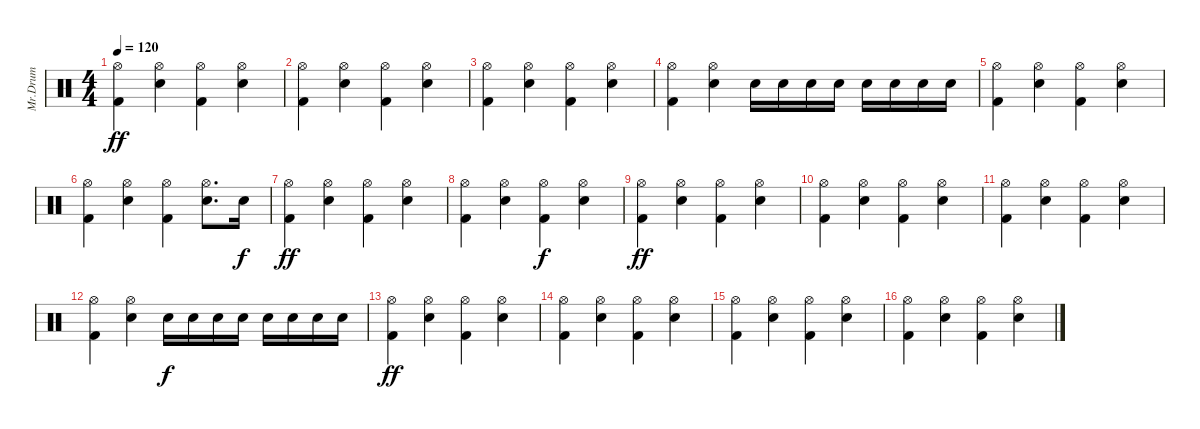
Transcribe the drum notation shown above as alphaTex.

\track ("Mr.Drum" "Mr.Drum") {instrument percussion}
\staff {score}
\articulation defaults
\ts (4 4)
\tempo 120
\clef neutral
\ks c
("Hi-Hat (open)" "Kick (hit) 2").4{dy ff} ("Hi-Hat (open)" "Electric Snare (hit)").4 ("Hi-Hat (open)" "Kick (hit) 2").4 ("Hi-Hat (open)" "Electric Snare (hit)").4 |
("Hi-Hat (open)" "Kick (hit) 2").4 ("Hi-Hat (open)" "Electric Snare (hit)").4 ("Hi-Hat (open)" "Kick (hit) 2").4 ("Hi-Hat (open)" "Electric Snare (hit)").4 |
("Hi-Hat (open)" "Kick (hit) 2").4 ("Hi-Hat (open)" "Electric Snare (hit)").4 ("Hi-Hat (open)" "Kick (hit) 2").4 ("Hi-Hat (open)" "Electric Snare (hit)").4 |
("Hi-Hat (open)" "Kick (hit) 2").4 ("Hi-Hat (open)" "Electric Snare (hit)").4 "Electric Snare (hit)".16 "Electric Snare (hit)".16 "Electric Snare (hit)".16 "Electric Snare (hit)".16 "Electric Snare (hit)".16 "Electric Snare (hit)".16 "Electric Snare (hit)".16 "Electric Snare (hit)".16 |
("Hi-Hat (open)" "Kick (hit) 2").4 ("Hi-Hat (open)" "Electric Snare (hit)").4 ("Hi-Hat (open)" "Kick (hit) 2").4 ("Hi-Hat (open)" "Electric Snare (hit)").4 |
("Hi-Hat (open)" "Kick (hit) 2").4 ("Hi-Hat (open)" "Electric Snare (hit)").4 ("Hi-Hat (open)" "Kick (hit) 2").4 ("Hi-Hat (open)" "Electric Snare (hit)").8{d} "Electric Snare (hit)".16{dy f} |
("Hi-Hat (open)" "Kick (hit) 2").4{dy ff} ("Hi-Hat (open)" "Electric Snare (hit)").4 ("Hi-Hat (open)" "Kick (hit) 2").4 ("Hi-Hat (open)" "Electric Snare (hit)").4 |
("Hi-Hat (open)" "Kick (hit) 2").4 ("Hi-Hat (open)" "Electric Snare (hit)").4 ("Hi-Hat (open)" "Kick (hit) 2").4{dy f} ("Hi-Hat (open)" "Electric Snare (hit)").4 |
("Hi-Hat (open)" "Kick (hit) 2").4{dy ff} ("Hi-Hat (open)" "Electric Snare (hit)").4 ("Hi-Hat (open)" "Kick (hit) 2").4 ("Hi-Hat (open)" "Electric Snare (hit)").4 |
("Hi-Hat (open)" "Kick (hit) 2").4 ("Hi-Hat (open)" "Electric Snare (hit)").4 ("Hi-Hat (open)" "Kick (hit) 2").4 ("Hi-Hat (open)" "Electric Snare (hit)").4 |
("Hi-Hat (open)" "Kick (hit) 2").4 ("Hi-Hat (open)" "Electric Snare (hit)").4 ("Hi-Hat (open)" "Kick (hit) 2").4 ("Hi-Hat (open)" "Electric Snare (hit)").4 |
("Hi-Hat (open)" "Kick (hit) 2").4 ("Hi-Hat (open)" "Electric Snare (hit)").4 "Electric Snare (hit)".16{dy f} "Electric Snare (hit)".16 "Electric Snare (hit)".16 "Electric Snare (hit)".16 "Electric Snare (hit)".16 "Electric Snare (hit)".16 "Electric Snare (hit)".16 "Electric Snare (hit)".16 |
("Hi-Hat (open)" "Kick (hit) 2").4{dy ff} ("Hi-Hat (open)" "Electric Snare (hit)").4 ("Hi-Hat (open)" "Kick (hit) 2").4 ("Hi-Hat (open)" "Electric Snare (hit)").4 |
("Hi-Hat (open)" "Kick (hit) 2").4 ("Hi-Hat (open)" "Electric Snare (hit)").4 ("Hi-Hat (open)" "Kick (hit) 2").4 ("Hi-Hat (open)" "Electric Snare (hit)").4 |
("Hi-Hat (open)" "Kick (hit) 2").4 ("Hi-Hat (open)" "Electric Snare (hit)").4 ("Hi-Hat (open)" "Kick (hit) 2").4 ("Hi-Hat (open)" "Electric Snare (hit)").4 |
("Hi-Hat (open)" "Kick (hit) 2").4 ("Hi-Hat (open)" "Electric Snare (hit)").4 ("Hi-Hat (open)" "Kick (hit) 2").4 ("Hi-Hat (open)" "Electric Snare (hit)").4
